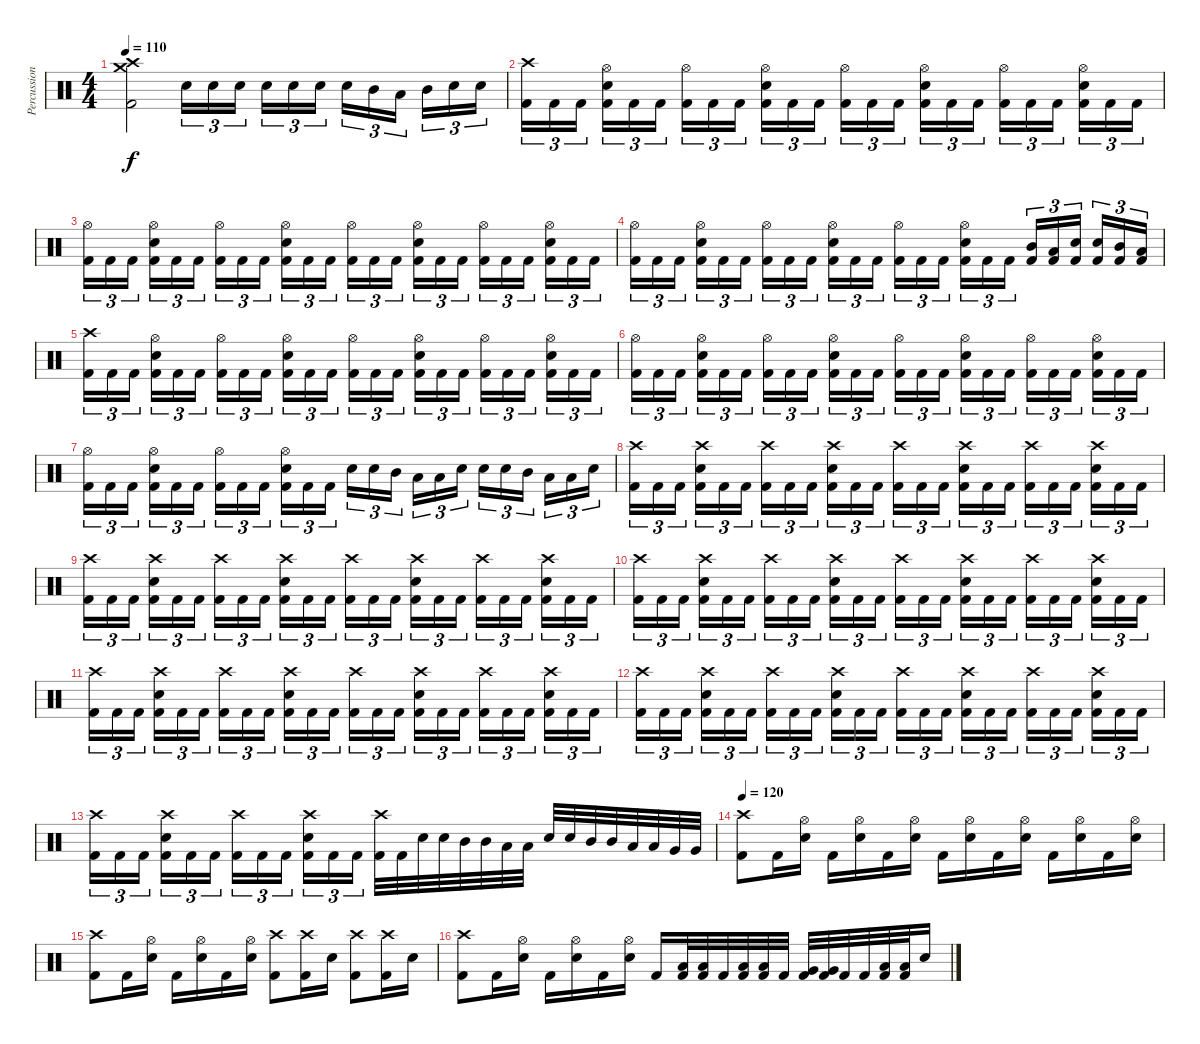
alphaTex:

\track ("Percussion" "Percussion") {instrument percussion}
\staff {score}
\articulation defaults
\ts (4 4)
\tempo 110
\clef neutral
\ks c
("Crash medium (hit)" "Crash high (hit)" "Kick (hit) 2").2{dy f} "Electric Snare (hit)".16{tu (3 2)} "Electric Snare (hit)".16{tu (3 2)} "Electric Snare (hit)".16{tu (3 2)} "Electric Snare (hit)".16{tu (3 2)} "Electric Snare (hit)".16{tu (3 2)} "Electric Snare (hit)".16{tu (3 2)} "Electric Snare (hit)".16{tu (3 2)} "Mid Tom (hit)".16{tu (3 2)} "Low Tom (hit)".16{tu (3 2)} "Mid Tom (hit)".16{tu (3 2)} "Electric Snare (hit)".16{tu (3 2)} "Electric Snare (hit)".16{tu (3 2)} |
("Crash high (hit)" "Kick (hit) 2").16{tu (3 2)} "Kick (hit) 2".16{tu (3 2)} "Kick (hit) 2".16{tu (3 2)} ("Hi-Hat (open)" "Electric Snare (hit)" "Kick (hit) 2").16{tu (3 2)} "Kick (hit) 2".16{tu (3 2)} "Kick (hit) 2".16{tu (3 2)} ("Hi-Hat (open)" "Kick (hit) 2").16{tu (3 2)} "Kick (hit) 2".16{tu (3 2)} "Kick (hit) 2".16{tu (3 2)} ("Hi-Hat (open)" "Electric Snare (hit)" "Kick (hit) 2").16{tu (3 2)} "Kick (hit) 2".16{tu (3 2)} "Kick (hit) 2".16{tu (3 2)} ("Hi-Hat (open)" "Kick (hit) 2").16{tu (3 2)} "Kick (hit) 2".16{tu (3 2)} "Kick (hit) 2".16{tu (3 2)} ("Hi-Hat (open)" "Electric Snare (hit)" "Kick (hit) 2").16{tu (3 2)} "Kick (hit) 2".16{tu (3 2)} "Kick (hit) 2".16{tu (3 2)} ("Hi-Hat (open)" "Kick (hit) 2").16{tu (3 2)} "Kick (hit) 2".16{tu (3 2)} "Kick (hit) 2".16{tu (3 2)} ("Hi-Hat (open)" "Electric Snare (hit)" "Kick (hit) 2").16{tu (3 2)} "Kick (hit) 2".16{tu (3 2)} "Kick (hit) 2".16{tu (3 2)} |
("Hi-Hat (open)" "Kick (hit) 2").16{tu (3 2)} "Kick (hit) 2".16{tu (3 2)} "Kick (hit) 2".16{tu (3 2)} ("Hi-Hat (open)" "Electric Snare (hit)" "Kick (hit) 2").16{tu (3 2)} "Kick (hit) 2".16{tu (3 2)} "Kick (hit) 2".16{tu (3 2)} ("Hi-Hat (open)" "Kick (hit) 2").16{tu (3 2)} "Kick (hit) 2".16{tu (3 2)} "Kick (hit) 2".16{tu (3 2)} ("Hi-Hat (open)" "Electric Snare (hit)" "Kick (hit) 2").16{tu (3 2)} "Kick (hit) 2".16{tu (3 2)} "Kick (hit) 2".16{tu (3 2)} ("Hi-Hat (open)" "Kick (hit) 2").16{tu (3 2)} "Kick (hit) 2".16{tu (3 2)} "Kick (hit) 2".16{tu (3 2)} ("Hi-Hat (open)" "Electric Snare (hit)" "Kick (hit) 2").16{tu (3 2)} "Kick (hit) 2".16{tu (3 2)} "Kick (hit) 2".16{tu (3 2)} ("Hi-Hat (open)" "Kick (hit) 2").16{tu (3 2)} "Kick (hit) 2".16{tu (3 2)} "Kick (hit) 2".16{tu (3 2)} ("Hi-Hat (open)" "Electric Snare (hit)" "Kick (hit) 2").16{tu (3 2)} "Kick (hit) 2".16{tu (3 2)} "Kick (hit) 2".16{tu (3 2)} |
("Hi-Hat (open)" "Kick (hit) 2").16{tu (3 2)} "Kick (hit) 2".16{tu (3 2)} "Kick (hit) 2".16{tu (3 2)} ("Hi-Hat (open)" "Electric Snare (hit)" "Kick (hit) 2").16{tu (3 2)} "Kick (hit) 2".16{tu (3 2)} "Kick (hit) 2".16{tu (3 2)} ("Hi-Hat (open)" "Kick (hit) 2").16{tu (3 2)} "Kick (hit) 2".16{tu (3 2)} "Kick (hit) 2".16{tu (3 2)} ("Hi-Hat (open)" "Electric Snare (hit)" "Kick (hit) 2").16{tu (3 2)} "Kick (hit) 2".16{tu (3 2)} "Kick (hit) 2".16{tu (3 2)} ("Hi-Hat (open)" "Kick (hit) 2").16{tu (3 2)} "Kick (hit) 2".16{tu (3 2)} "Kick (hit) 2".16{tu (3 2)} ("Hi-Hat (open)" "Electric Snare (hit)" "Kick (hit) 2").16{tu (3 2)} "Kick (hit) 2".16{tu (3 2)} "Kick (hit) 2".16{tu (3 2)} ("Mid Tom (hit)" "Kick (hit) 2").16{tu (3 2)} ("Low Tom (hit)" "Kick (hit) 2").16{tu (3 2)} ("Electric Snare (hit)" "Kick (hit) 2").16{tu (3 2)} ("Electric Snare (hit)" "Kick (hit) 2").16{tu (3 2)} ("Mid Tom (hit)" "Kick (hit) 2").16{tu (3 2)} ("Low Tom (hit)" "Kick (hit) 2").16{tu (3 2)} |
("Crash high (hit)" "Kick (hit) 2").16{tu (3 2)} "Kick (hit) 2".16{tu (3 2)} "Kick (hit) 2".16{tu (3 2)} ("Hi-Hat (open)" "Electric Snare (hit)" "Kick (hit) 2").16{tu (3 2)} "Kick (hit) 2".16{tu (3 2)} "Kick (hit) 2".16{tu (3 2)} ("Hi-Hat (open)" "Kick (hit) 2").16{tu (3 2)} "Kick (hit) 2".16{tu (3 2)} "Kick (hit) 2".16{tu (3 2)} ("Hi-Hat (open)" "Electric Snare (hit)" "Kick (hit) 2").16{tu (3 2)} "Kick (hit) 2".16{tu (3 2)} "Kick (hit) 2".16{tu (3 2)} ("Hi-Hat (open)" "Kick (hit) 2").16{tu (3 2)} "Kick (hit) 2".16{tu (3 2)} "Kick (hit) 2".16{tu (3 2)} ("Hi-Hat (open)" "Electric Snare (hit)" "Kick (hit) 2").16{tu (3 2)} "Kick (hit) 2".16{tu (3 2)} "Kick (hit) 2".16{tu (3 2)} ("Hi-Hat (open)" "Kick (hit) 2").16{tu (3 2)} "Kick (hit) 2".16{tu (3 2)} "Kick (hit) 2".16{tu (3 2)} ("Hi-Hat (open)" "Electric Snare (hit)" "Kick (hit) 2").16{tu (3 2)} "Kick (hit) 2".16{tu (3 2)} "Kick (hit) 2".16{tu (3 2)} |
("Hi-Hat (open)" "Kick (hit) 2").16{tu (3 2)} "Kick (hit) 2".16{tu (3 2)} "Kick (hit) 2".16{tu (3 2)} ("Hi-Hat (open)" "Electric Snare (hit)" "Kick (hit) 2").16{tu (3 2)} "Kick (hit) 2".16{tu (3 2)} "Kick (hit) 2".16{tu (3 2)} ("Hi-Hat (open)" "Kick (hit) 2").16{tu (3 2)} "Kick (hit) 2".16{tu (3 2)} "Kick (hit) 2".16{tu (3 2)} ("Hi-Hat (open)" "Electric Snare (hit)" "Kick (hit) 2").16{tu (3 2)} "Kick (hit) 2".16{tu (3 2)} "Kick (hit) 2".16{tu (3 2)} ("Hi-Hat (open)" "Kick (hit) 2").16{tu (3 2)} "Kick (hit) 2".16{tu (3 2)} "Kick (hit) 2".16{tu (3 2)} ("Hi-Hat (open)" "Electric Snare (hit)" "Kick (hit) 2").16{tu (3 2)} "Kick (hit) 2".16{tu (3 2)} "Kick (hit) 2".16{tu (3 2)} ("Hi-Hat (open)" "Kick (hit) 2").16{tu (3 2)} "Kick (hit) 2".16{tu (3 2)} "Kick (hit) 2".16{tu (3 2)} ("Hi-Hat (open)" "Electric Snare (hit)" "Kick (hit) 2").16{tu (3 2)} "Kick (hit) 2".16{tu (3 2)} "Kick (hit) 2".16{tu (3 2)} |
("Hi-Hat (open)" "Kick (hit) 2").16{tu (3 2)} "Kick (hit) 2".16{tu (3 2)} "Kick (hit) 2".16{tu (3 2)} ("Hi-Hat (open)" "Electric Snare (hit)" "Kick (hit) 2").16{tu (3 2)} "Kick (hit) 2".16{tu (3 2)} "Kick (hit) 2".16{tu (3 2)} ("Hi-Hat (open)" "Kick (hit) 2").16{tu (3 2)} "Kick (hit) 2".16{tu (3 2)} "Kick (hit) 2".16{tu (3 2)} ("Hi-Hat (open)" "Electric Snare (hit)" "Kick (hit) 2").16{tu (3 2)} "Kick (hit) 2".16{tu (3 2)} "Kick (hit) 2".16{tu (3 2)} "Electric Snare (hit)".16{tu (3 2)} "Electric Snare (hit)".16{tu (3 2)} "Mid Tom (hit)".16{tu (3 2)} "Low Tom (hit)".16{tu (3 2)} "Low Tom (hit)".16{tu (3 2)} "Electric Snare (hit)".16{tu (3 2)} "Electric Snare (hit)".16{tu (3 2)} "Electric Snare (hit)".16{tu (3 2)} "Mid Tom (hit)".16{tu (3 2)} "Low Tom (hit)".16{tu (3 2)} "Low Tom (hit)".16{tu (3 2)} "Electric Snare (hit)".16{tu (3 2)} |
("Crash high (hit)" "Kick (hit) 2").16{tu (3 2)} "Kick (hit) 2".16{tu (3 2)} "Kick (hit) 2".16{tu (3 2)} ("Crash high (hit)" "Electric Snare (hit)" "Kick (hit) 2").16{tu (3 2)} "Kick (hit) 2".16{tu (3 2)} "Kick (hit) 2".16{tu (3 2)} ("Crash high (hit)" "Kick (hit) 2").16{tu (3 2)} "Kick (hit) 2".16{tu (3 2)} "Kick (hit) 2".16{tu (3 2)} ("Crash high (hit)" "Electric Snare (hit)" "Kick (hit) 2").16{tu (3 2)} "Kick (hit) 2".16{tu (3 2)} "Kick (hit) 2".16{tu (3 2)} ("Crash high (hit)" "Kick (hit) 2").16{tu (3 2)} "Kick (hit) 2".16{tu (3 2)} "Kick (hit) 2".16{tu (3 2)} ("Crash high (hit)" "Electric Snare (hit)" "Kick (hit) 2").16{tu (3 2)} "Kick (hit) 2".16{tu (3 2)} "Kick (hit) 2".16{tu (3 2)} ("Crash high (hit)" "Kick (hit) 2").16{tu (3 2)} "Kick (hit) 2".16{tu (3 2)} "Kick (hit) 2".16{tu (3 2)} ("Crash high (hit)" "Electric Snare (hit)" "Kick (hit) 2").16{tu (3 2)} "Kick (hit) 2".16{tu (3 2)} "Kick (hit) 2".16{tu (3 2)} |
("Crash high (hit)" "Kick (hit) 2").16{tu (3 2)} "Kick (hit) 2".16{tu (3 2)} "Kick (hit) 2".16{tu (3 2)} ("Crash high (hit)" "Electric Snare (hit)" "Kick (hit) 2").16{tu (3 2)} "Kick (hit) 2".16{tu (3 2)} "Kick (hit) 2".16{tu (3 2)} ("Crash high (hit)" "Kick (hit) 2").16{tu (3 2)} "Kick (hit) 2".16{tu (3 2)} "Kick (hit) 2".16{tu (3 2)} ("Crash high (hit)" "Electric Snare (hit)" "Kick (hit) 2").16{tu (3 2)} "Kick (hit) 2".16{tu (3 2)} "Kick (hit) 2".16{tu (3 2)} ("Crash high (hit)" "Kick (hit) 2").16{tu (3 2)} "Kick (hit) 2".16{tu (3 2)} "Kick (hit) 2".16{tu (3 2)} ("Crash high (hit)" "Electric Snare (hit)" "Kick (hit) 2").16{tu (3 2)} "Kick (hit) 2".16{tu (3 2)} "Kick (hit) 2".16{tu (3 2)} ("Crash high (hit)" "Kick (hit) 2").16{tu (3 2)} "Kick (hit) 2".16{tu (3 2)} "Kick (hit) 2".16{tu (3 2)} ("Crash high (hit)" "Electric Snare (hit)" "Kick (hit) 2").16{tu (3 2)} "Kick (hit) 2".16{tu (3 2)} "Kick (hit) 2".16{tu (3 2)} |
("Crash high (hit)" "Kick (hit) 2").16{tu (3 2)} "Kick (hit) 2".16{tu (3 2)} "Kick (hit) 2".16{tu (3 2)} ("Crash high (hit)" "Electric Snare (hit)" "Kick (hit) 2").16{tu (3 2)} "Kick (hit) 2".16{tu (3 2)} "Kick (hit) 2".16{tu (3 2)} ("Crash high (hit)" "Kick (hit) 2").16{tu (3 2)} "Kick (hit) 2".16{tu (3 2)} "Kick (hit) 2".16{tu (3 2)} ("Crash high (hit)" "Electric Snare (hit)" "Kick (hit) 2").16{tu (3 2)} "Kick (hit) 2".16{tu (3 2)} "Kick (hit) 2".16{tu (3 2)} ("Crash high (hit)" "Kick (hit) 2").16{tu (3 2)} "Kick (hit) 2".16{tu (3 2)} "Kick (hit) 2".16{tu (3 2)} ("Crash high (hit)" "Electric Snare (hit)" "Kick (hit) 2").16{tu (3 2)} "Kick (hit) 2".16{tu (3 2)} "Kick (hit) 2".16{tu (3 2)} ("Crash high (hit)" "Kick (hit) 2").16{tu (3 2)} "Kick (hit) 2".16{tu (3 2)} "Kick (hit) 2".16{tu (3 2)} ("Crash high (hit)" "Electric Snare (hit)" "Kick (hit) 2").16{tu (3 2)} "Kick (hit) 2".16{tu (3 2)} "Kick (hit) 2".16{tu (3 2)} |
("Crash high (hit)" "Kick (hit) 2").16{tu (3 2)} "Kick (hit) 2".16{tu (3 2)} "Kick (hit) 2".16{tu (3 2)} ("Crash high (hit)" "Electric Snare (hit)" "Kick (hit) 2").16{tu (3 2)} "Kick (hit) 2".16{tu (3 2)} "Kick (hit) 2".16{tu (3 2)} ("Crash high (hit)" "Kick (hit) 2").16{tu (3 2)} "Kick (hit) 2".16{tu (3 2)} "Kick (hit) 2".16{tu (3 2)} ("Crash high (hit)" "Electric Snare (hit)" "Kick (hit) 2").16{tu (3 2)} "Kick (hit) 2".16{tu (3 2)} "Kick (hit) 2".16{tu (3 2)} ("Crash high (hit)" "Kick (hit) 2").16{tu (3 2)} "Kick (hit) 2".16{tu (3 2)} "Kick (hit) 2".16{tu (3 2)} ("Crash high (hit)" "Electric Snare (hit)" "Kick (hit) 2").16{tu (3 2)} "Kick (hit) 2".16{tu (3 2)} "Kick (hit) 2".16{tu (3 2)} ("Crash high (hit)" "Kick (hit) 2").16{tu (3 2)} "Kick (hit) 2".16{tu (3 2)} "Kick (hit) 2".16{tu (3 2)} ("Crash high (hit)" "Electric Snare (hit)" "Kick (hit) 2").16{tu (3 2)} "Kick (hit) 2".16{tu (3 2)} "Kick (hit) 2".16{tu (3 2)} |
("Crash high (hit)" "Kick (hit) 2").16{tu (3 2)} "Kick (hit) 2".16{tu (3 2)} "Kick (hit) 2".16{tu (3 2)} ("Crash high (hit)" "Electric Snare (hit)" "Kick (hit) 2").16{tu (3 2)} "Kick (hit) 2".16{tu (3 2)} "Kick (hit) 2".16{tu (3 2)} ("Crash high (hit)" "Kick (hit) 2").16{tu (3 2)} "Kick (hit) 2".16{tu (3 2)} "Kick (hit) 2".16{tu (3 2)} ("Crash high (hit)" "Electric Snare (hit)" "Kick (hit) 2").16{tu (3 2)} "Kick (hit) 2".16{tu (3 2)} "Kick (hit) 2".16{tu (3 2)} ("Crash high (hit)" "Kick (hit) 2").16{tu (3 2)} "Kick (hit) 2".16{tu (3 2)} "Kick (hit) 2".16{tu (3 2)} ("Crash high (hit)" "Electric Snare (hit)" "Kick (hit) 2").16{tu (3 2)} "Kick (hit) 2".16{tu (3 2)} "Kick (hit) 2".16{tu (3 2)} ("Crash high (hit)" "Kick (hit) 2").16{tu (3 2)} "Kick (hit) 2".16{tu (3 2)} "Kick (hit) 2".16{tu (3 2)} ("Crash high (hit)" "Electric Snare (hit)" "Kick (hit) 2").16{tu (3 2)} "Kick (hit) 2".16{tu (3 2)} "Kick (hit) 2".16{tu (3 2)} |
("Crash high (hit)" "Kick (hit) 2").16{tu (3 2)} "Kick (hit) 2".16{tu (3 2)} "Kick (hit) 2".16{tu (3 2)} ("Crash high (hit)" "Electric Snare (hit)" "Kick (hit) 2").16{tu (3 2)} "Kick (hit) 2".16{tu (3 2)} "Kick (hit) 2".16{tu (3 2)} ("Crash high (hit)" "Kick (hit) 2").16{tu (3 2)} "Kick (hit) 2".16{tu (3 2)} "Kick (hit) 2".16{tu (3 2)} ("Crash high (hit)" "Electric Snare (hit)" "Kick (hit) 2").16{tu (3 2)} "Kick (hit) 2".16{tu (3 2)} "Kick (hit) 2".16{tu (3 2)} ("Crash high (hit)" "Kick (hit) 2").32 "Kick (hit) 2".32 "Electric Snare (hit)".32 "Electric Snare (hit)".32 "Mid Tom (hit)".32 "Mid Tom (hit)".32 "Low Tom (hit)".32 "Low Tom (hit)".32 "Electric Snare (hit)".32 "Electric Snare (hit)".32 "Mid Tom (hit)".32 "Mid Tom (hit)".32 "Low Tom (hit)".32 "Low Tom (hit)".32 "Very Low Tom (hit)".32 "Very Low Tom (hit)".32 |
\tempo 120
("Crash high (hit)" "Kick (hit) 2").8 "Kick (hit) 2".16 ("Hi-Hat (open)" "Electric Snare (hit)").16 "Kick (hit) 2".16 ("Hi-Hat (open)" "Electric Snare (hit)").16 "Kick (hit) 2".16 ("Hi-Hat (open)" "Electric Snare (hit)").16 "Kick (hit) 2".16 ("Hi-Hat (open)" "Electric Snare (hit)").16 "Kick (hit) 2".16 ("Hi-Hat (open)" "Electric Snare (hit)").16 "Kick (hit) 2".16 ("Hi-Hat (open)" "Electric Snare (hit)").16 "Kick (hit) 2".16 ("Hi-Hat (open)" "Electric Snare (hit)").16 |
("Crash high (hit)" "Kick (hit) 2").8 "Kick (hit) 2".16 ("Hi-Hat (open)" "Electric Snare (hit)").16 "Kick (hit) 2".16 ("Hi-Hat (open)" "Electric Snare (hit)").16 "Kick (hit) 2".16 ("Hi-Hat (open)" "Electric Snare (hit)").16 ("Crash high (hit)" "Kick (hit) 2").8 ("Crash high (hit)" "Kick (hit) 2").16 "Electric Snare (hit)".16 ("Crash high (hit)" "Kick (hit) 2").8 ("Crash high (hit)" "Kick (hit) 2").16 "Electric Snare (hit)".16 |
("Crash high (hit)" "Kick (hit) 2").8 "Kick (hit) 2".16 ("Hi-Hat (open)" "Electric Snare (hit)").16 "Kick (hit) 2".16 ("Hi-Hat (open)" "Electric Snare (hit)").16 "Kick (hit) 2".16 ("Hi-Hat (open)" "Electric Snare (hit)").16 "Kick (hit) 2".16 ("Low Tom (hit)" "Kick (hit) 2").32 ("Low Tom (hit)" "Kick (hit) 2").32 "Kick (hit) 2".32 ("Low Tom (hit)" "Kick (hit) 2").32 ("Low Tom (hit)" "Kick (hit) 2").32 "Kick (hit) 2".32 ("Very Low Tom (hit)" "Kick (hit) 2").32 ("Very Low Tom (hit)" "Kick (hit) 2").32 "Kick (hit) 2".32 "Kick (hit) 2".32 ("Low Tom (hit)" "Kick (hit) 2").32 ("Low Tom (hit)" "Kick (hit) 2").32 "Electric Snare (hit)".16
